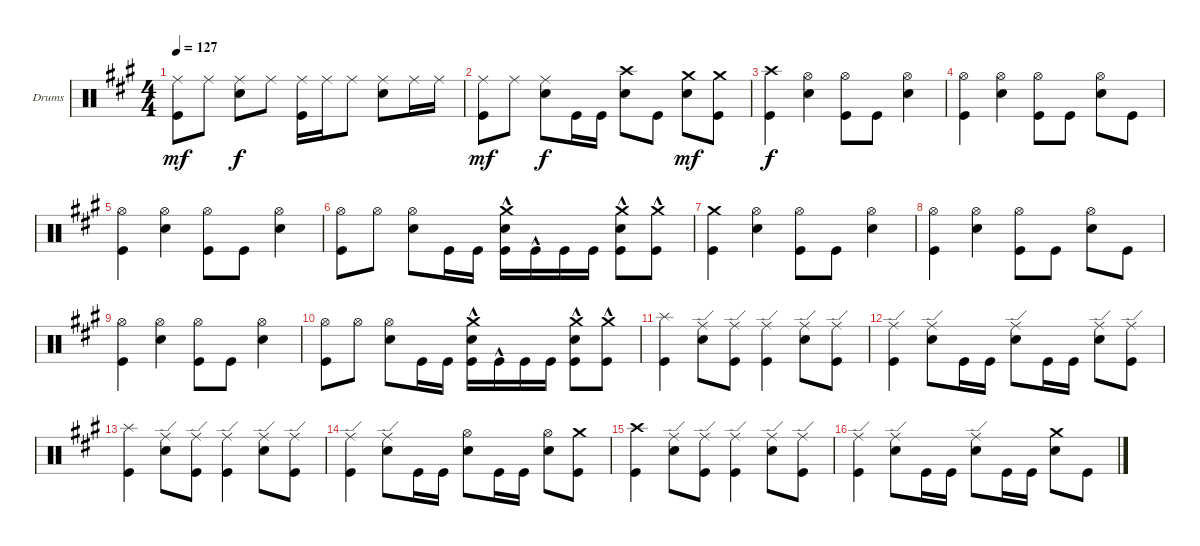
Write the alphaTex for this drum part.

\bracketExtendMode groupsimilarinstruments
\firstSystemTrackNameOrientation horizontal
\otherSystemsTrackNameOrientation horizontal
\track ("Drumkit" "Drums") {instrument percussion}
\staff {score}
\articulation defaults
\ts (4 4)
\tempo 127
\clef neutral
\ks f#minor
("Kick (hit)" "Ride (middle)").8{dy mf} "Ride (middle)".8 ("Snare (hit) 2" "Ride (middle)").8{dy f} "Ride (middle)".8 ("Ride (middle)" "Kick (hit)").16 "Ride (middle)".16 "Ride (middle)".8 ("Ride (middle)" "Snare (hit) 2").8 "Ride (middle)".16 "Ride (middle)".16 |
("Kick (hit)" "Ride (middle)").8{dy mf} "Ride (middle)".8 ("Snare (hit) 2" "Ride (middle)").8{dy f} "Kick (hit)".16 "Kick (hit)".16 ("Snare (hit) 2" "Crash high (hit)").8 "Kick (hit)".8 ("Snare (hit) 2" "Crash medium (hit)").8{dy mf} ("Kick (hit)" "Crash medium (hit)").8 |
("Kick (hit)" "Crash high (hit)").4{dy f} ("Hi-Hat (open)" "Snare (hit) 2").4 ("Hi-Hat (open)" "Kick (hit)").8 "Kick (hit)".8 ("Hi-Hat (open)" "Snare (hit) 2").4 |
("Hi-Hat (open)" "Kick (hit)").4 ("Hi-Hat (open)" "Snare (hit) 2").4 ("Hi-Hat (open)" "Kick (hit)").8 "Kick (hit)".8 ("Hi-Hat (open)" "Snare (hit) 2").8 "Kick (hit)".8 |
("Hi-Hat (open)" "Kick (hit)").4 ("Hi-Hat (open)" "Snare (hit) 2").4 ("Hi-Hat (open)" "Kick (hit)").8 "Kick (hit)".8 ("Hi-Hat (open)" "Snare (hit) 2").4 |
("Hi-Hat (open)" "Kick (hit)").8 "Hi-Hat (open)".8 ("Hi-Hat (open)" "Snare (hit) 2").8 "Kick (hit)".16 "Kick (hit)".16 ("Snare (hit) 2" "Kick (hit)"{hac} "Crash medium (hit)").16 "Kick (hit)"{hac}.16 "Kick (hit)".16 "Kick (hit)".16 ("Snare (hit) 2" "Kick (hit)"{hac} "Crash medium (hit)").8 ("Kick (hit)"{hac} "Crash medium (hit)").8 |
("Crash medium (hit)" "Kick (hit)").4 ("Hi-Hat (open)" "Snare (hit) 2").4 ("Hi-Hat (open)" "Kick (hit)").8 "Kick (hit)".8 ("Hi-Hat (open)" "Snare (hit) 2").4 |
("Hi-Hat (open)" "Kick (hit)").4 ("Hi-Hat (open)" "Snare (hit) 2").4 ("Hi-Hat (open)" "Kick (hit)").8 "Kick (hit)".8 ("Hi-Hat (open)" "Snare (hit) 2").8 "Kick (hit)".8 |
("Hi-Hat (open)" "Kick (hit)").4 ("Hi-Hat (open)" "Snare (hit) 2").4 ("Hi-Hat (open)" "Kick (hit)").8 "Kick (hit)".8 ("Hi-Hat (open)" "Snare (hit) 2").4 |
("Hi-Hat (open)" "Kick (hit)").8 "Hi-Hat (open)".8 ("Hi-Hat (open)" "Snare (hit) 2").8 "Kick (hit)".16 "Kick (hit)".16 ("Snare (hit) 2" "Kick (hit)"{hac} "Crash medium (hit)").16 "Kick (hit)"{hac}.16 "Kick (hit)".16 "Kick (hit)".16 ("Snare (hit) 2" "Kick (hit)"{hac} "Crash medium (hit)").8 ("Kick (hit)"{hac} "Crash medium (hit)").8 |
("Kick (hit)" "Splash (hit)").4 ("Ride (edge)" "Snare (hit) 2").8 ("Ride (edge)" "Kick (hit)").8 ("Kick (hit)" "Ride (edge)").4 ("Ride (edge)" "Snare (hit) 2").8 ("Ride (edge)" "Kick (hit)").8 |
("Kick (hit)" "Ride (edge)").4 ("Ride (edge)" "Snare (hit) 2").8 "Kick (hit)".16 "Kick (hit)".16 ("Snare (hit) 2" "Ride (edge)").8 "Kick (hit)".16 "Kick (hit)".16 ("Snare (hit) 2" "Ride (edge)").8 ("Kick (hit)" "Ride (edge)").8 |
("Kick (hit)" "Splash (hit)").4 ("Ride (edge)" "Snare (hit) 2").8 ("Ride (edge)" "Kick (hit)").8 ("Kick (hit)" "Ride (edge)").4 ("Ride (edge)" "Snare (hit) 2").8 ("Ride (edge)" "Kick (hit)").8 |
("Kick (hit)" "Ride (edge)").4 ("Ride (edge)" "Snare (hit) 2").8 "Kick (hit)".16 "Kick (hit)".16 ("Snare (hit) 2" "Hi-Hat (open)").8 "Kick (hit)".16 "Kick (hit)".16 ("Snare (hit) 2" "Hi-Hat (open)").8 ("Kick (hit)" "Crash medium (hit)").8 |
("Kick (hit)" "Crash high (hit)").4 ("Ride (edge)" "Snare (hit) 2").8 ("Ride (edge)" "Kick (hit)").8 ("Kick (hit)" "Ride (edge)").4 ("Ride (edge)" "Snare (hit) 2").8 ("Ride (edge)" "Kick (hit)").8 |
("Kick (hit)" "Ride (edge)").4 ("Ride (edge)" "Snare (hit) 2").8 "Kick (hit)".16 "Kick (hit)".16 ("Snare (hit) 2" "Ride (edge)").8 "Kick (hit)".16 "Kick (hit)".16 ("Snare (hit) 2" "Crash medium (hit)").8 "Kick (hit)".8
